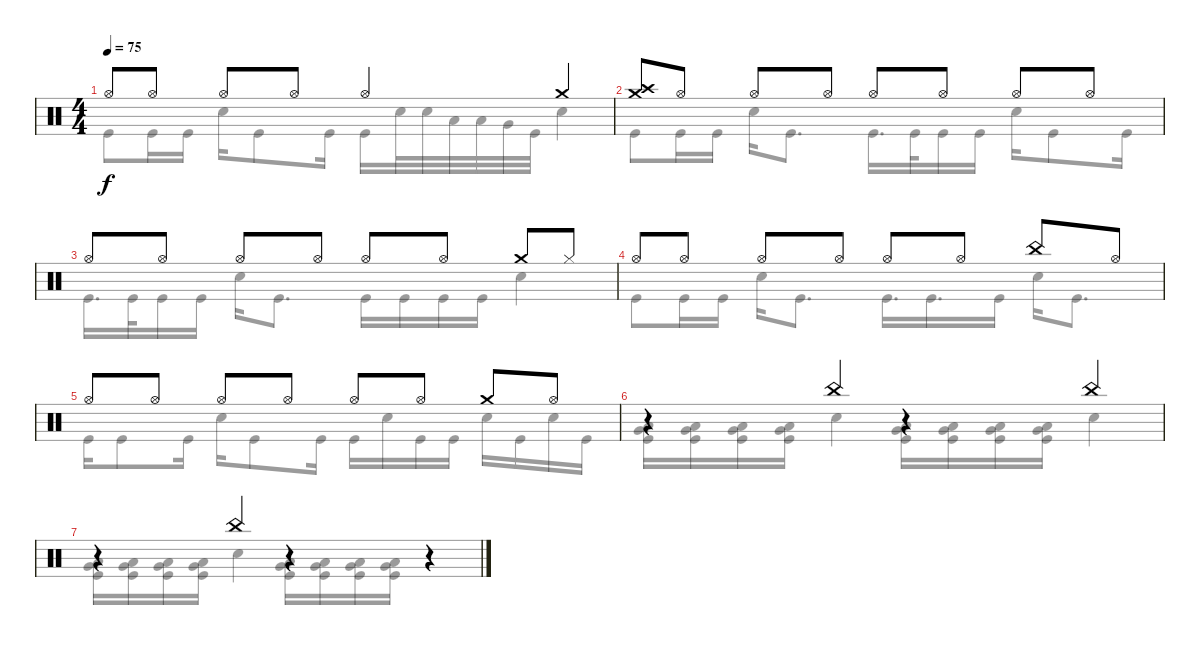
\track "" {instrument percussion}
\staff {score}
\articulation defaults
\voice
\ts (4 4)
\tempo 75
\clef neutral
\ks c "Hi-Hat (open)".8{dy f} "Hi-Hat (open)".8 "Hi-Hat (open)".8 "Hi-Hat (open)".8 "Hi-Hat (open)".4 "Crash medium (hit)".4
|
("Crash medium (hit)" "Crash high (hit)").8 "Hi-Hat (open)".8 "Hi-Hat (open)".8 "Hi-Hat (open)".8 "Hi-Hat (open)".8 "Hi-Hat (open)".8 "Hi-Hat (open)".8 "Hi-Hat (open)".8 |
"Hi-Hat (open)".8 "Hi-Hat (open)".8 "Hi-Hat (open)".8 "Hi-Hat (open)".8 "Hi-Hat (open)".8 "Hi-Hat (open)".8 "Crash medium (hit)".8 "Hi-Hat (closed)".8 |
"Hi-Hat (open)".8 "Hi-Hat (open)".8 "Hi-Hat (open)".8 "Hi-Hat (open)".8 "Hi-Hat (open)".8 "Hi-Hat (open)".8 "China (hit)".8 "Hi-Hat (open)".8 |
"Hi-Hat (open)".8 "Hi-Hat (open)".8 "Hi-Hat (open)".8 "Hi-Hat (open)".8 "Hi-Hat (open)".8 "Hi-Hat (open)".8 "Crash medium (hit)".8 "Hi-Hat (open)".8 |
r.4 "China (hit)".4 r.4 "China (hit)".4 |
r.4 "China (hit)".4 r.4 r.4
\voice
\clef neutral
\ottava regular
\simile none
\ks c "Kick (hit)".8{dy f} "Kick (hit)".16 "Kick (hit)".16 "Snare (hit) 2".16 "Kick (hit)".8 "Kick (hit)".16 "Kick (hit)".16 "Snare (hit) 2".32 "Snare (hit) 2".32 "Low Tom (hit)".32 "Low Tom (hit)".32 "Very Low Tom (hit)".32 "Kick (hit)".32 "Snare (hit) 2".4
|
"Kick (hit)".8 "Kick (hit)".16 "Kick (hit)".16 "Snare (hit) 2".16 "Kick (hit)".8{d} "Kick (hit)".16{d} "Kick (hit)".32 "Kick (hit)".16 "Kick (hit)".16 "Snare (hit) 2".16 "Kick (hit)".8 "Kick (hit)".16 |
"Kick (hit)".16{d} "Kick (hit)".32 "Kick (hit)".16 "Kick (hit)".16 "Snare (hit) 2".16 "Kick (hit)".8{d} "Kick (hit)".16 "Kick (hit)".16 "Kick (hit)".16 "Kick (hit)".16 "Snare (hit) 2".4 |
"Kick (hit)".8 "Kick (hit)".16 "Kick (hit)".16 "Snare (hit) 2".16 "Kick (hit)".8{d} "Kick (hit)".16{d} "Kick (hit)".16{d} "Kick (hit)".16 "Snare (hit) 2".16 "Kick (hit)".8{d} |
"Kick (hit)".16 "Kick (hit)".8 "Kick (hit)".16 "Snare (hit) 2".16 "Kick (hit)".8 "Kick (hit)".16 "Kick (hit)".16 "Snare (hit) 2".16 "Kick (hit)".16 "Kick (hit)".16 "Snare (hit) 2".16 "Kick (hit)".16 "Snare (hit) 2".16 "Kick (hit)".16 |
("Low Tom (hit)" "Very Low Tom (hit)" "Kick (hit)").16 ("Low Tom (hit)" "Very Low Tom (hit)" "Kick (hit)").16 ("Low Tom (hit)" "Very Low Tom (hit)" "Kick (hit)").16 ("Low Tom (hit)" "Very Low Tom (hit)" "Kick (hit)").16 "Snare (hit) 2".4 ("Low Tom (hit)" "Very Low Tom (hit)" "Kick (hit)").16 ("Low Tom (hit)" "Very Low Tom (hit)" "Kick (hit)").16 ("Low Tom (hit)" "Very Low Tom (hit)" "Kick (hit)").16 ("Low Tom (hit)" "Very Low Tom (hit)" "Kick (hit)").16 "Snare (hit) 2".4 |
("Low Tom (hit)" "Very Low Tom (hit)" "Kick (hit)").16 ("Low Tom (hit)" "Very Low Tom (hit)" "Kick (hit)").16 ("Low Tom (hit)" "Very Low Tom (hit)" "Kick (hit)").16 ("Low Tom (hit)" "Very Low Tom (hit)" "Kick (hit)").16 "Snare (hit) 2".4 ("Low Tom (hit)" "Very Low Tom (hit)" "Kick (hit)").16 ("Low Tom (hit)" "Very Low Tom (hit)" "Kick (hit)").16 ("Low Tom (hit)" "Very Low Tom (hit)" "Kick (hit)").16 ("Low Tom (hit)" "Very Low Tom (hit)" "Kick (hit)").16 r.4
